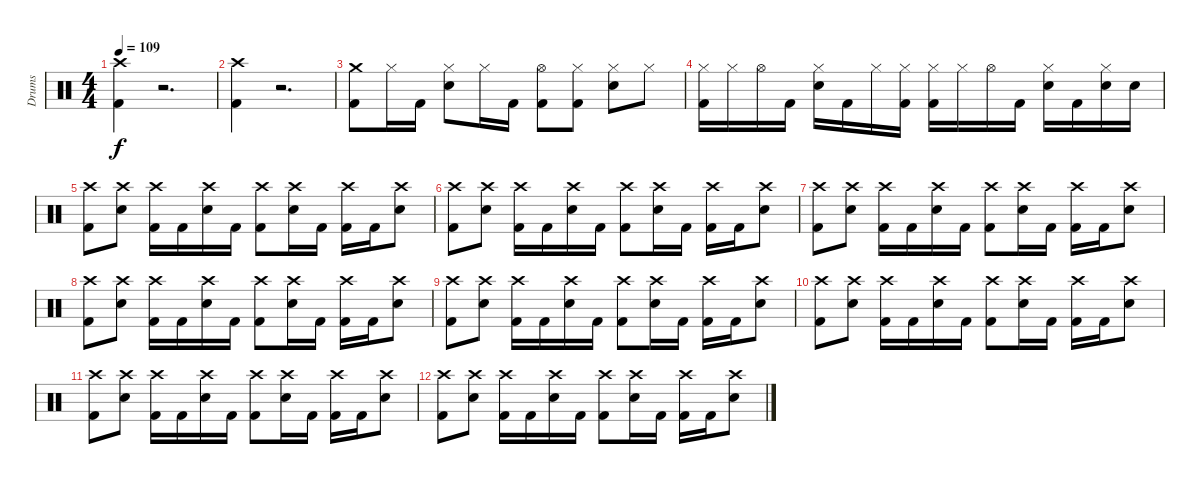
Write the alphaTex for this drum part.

\track ("Drums" "Drums") {instrument percussion}
\staff {score}
\articulation defaults
\ts (4 4)
\tempo 109
\clef neutral
\ks c
("Kick (hit) 2" "Crash high (hit)").4{dy f} r.2{d} |
("Crash high (hit)" "Kick (hit) 2").4 r.2{d} |
("Kick (hit) 2" "Crash medium (hit)").8 "Hi-Hat (closed)".16 "Kick (hit) 2".16 ("Electric Snare (hit)" "Hi-Hat (closed)").8 "Hi-Hat (closed)".16 "Kick (hit) 2".16 ("Kick (hit) 2" "Hi-Hat (open)").8 ("Kick (hit) 2" "Hi-Hat (closed)").8 ("Electric Snare (hit)" "Hi-Hat (closed)").8 "Hi-Hat (closed)".8 |
("Kick (hit) 2" "Hi-Hat (closed)").16 "Hi-Hat (closed)".16 "Hi-Hat (open)".16 "Kick (hit) 2".16 ("Electric Snare (hit)" "Hi-Hat (closed)").16 "Kick (hit) 2".16 "Hi-Hat (closed)".16 ("Kick (hit) 2" "Hi-Hat (closed)").16 ("Kick (hit) 2" "Hi-Hat (closed)").16 "Hi-Hat (closed)".16 "Hi-Hat (open)".16 "Kick (hit) 2".16 ("Electric Snare (hit)" "Hi-Hat (closed)").16 "Kick (hit) 2".16 ("Electric Snare (hit)" "Hi-Hat (closed)").16 "Electric Snare (hit)".16 |
("Kick (hit) 2" "Crash high (hit)").8 ("Electric Snare (hit)" "Crash high (hit)").8 ("Kick (hit) 2" "Crash high (hit)").16 "Kick (hit) 2".16 ("Electric Snare (hit)" "Crash high (hit)").16 "Kick (hit) 2".16 ("Kick (hit) 2" "Crash high (hit)").8 ("Electric Snare (hit)" "Crash high (hit)").16 "Kick (hit) 2".16 ("Kick (hit) 2" "Crash high (hit)").16 "Kick (hit) 2".16 ("Electric Snare (hit)" "Crash high (hit)").8 |
("Kick (hit) 2" "Crash high (hit)").8 ("Electric Snare (hit)" "Crash high (hit)").8 ("Kick (hit) 2" "Crash high (hit)").16 "Kick (hit) 2".16 ("Electric Snare (hit)" "Crash high (hit)").16 "Kick (hit) 2".16 ("Kick (hit) 2" "Crash high (hit)").8 ("Electric Snare (hit)" "Crash high (hit)").16 "Kick (hit) 2".16 ("Kick (hit) 2" "Crash high (hit)").16 "Kick (hit) 2".16 ("Electric Snare (hit)" "Crash high (hit)").8 |
("Kick (hit) 2" "Crash high (hit)").8 ("Electric Snare (hit)" "Crash high (hit)").8 ("Kick (hit) 2" "Crash high (hit)").16 "Kick (hit) 2".16 ("Electric Snare (hit)" "Crash high (hit)").16 "Kick (hit) 2".16 ("Kick (hit) 2" "Crash high (hit)").8 ("Electric Snare (hit)" "Crash high (hit)").16 "Kick (hit) 2".16 ("Kick (hit) 2" "Crash high (hit)").16 "Kick (hit) 2".16 ("Electric Snare (hit)" "Crash high (hit)").8 |
("Kick (hit) 2" "Crash high (hit)").8 ("Electric Snare (hit)" "Crash high (hit)").8 ("Kick (hit) 2" "Crash high (hit)").16 "Kick (hit) 2".16 ("Electric Snare (hit)" "Crash high (hit)").16 "Kick (hit) 2".16 ("Kick (hit) 2" "Crash high (hit)").8 ("Electric Snare (hit)" "Crash high (hit)").16 "Kick (hit) 2".16 ("Kick (hit) 2" "Crash high (hit)").16 "Kick (hit) 2".16 ("Electric Snare (hit)" "Crash high (hit)").8 |
("Kick (hit) 2" "Crash high (hit)").8 ("Electric Snare (hit)" "Crash high (hit)").8 ("Kick (hit) 2" "Crash high (hit)").16 "Kick (hit) 2".16 ("Electric Snare (hit)" "Crash high (hit)").16 "Kick (hit) 2".16 ("Kick (hit) 2" "Crash high (hit)").8 ("Electric Snare (hit)" "Crash high (hit)").16 "Kick (hit) 2".16 ("Kick (hit) 2" "Crash high (hit)").16 "Kick (hit) 2".16 ("Electric Snare (hit)" "Crash high (hit)").8 |
("Kick (hit) 2" "Crash high (hit)").8 ("Electric Snare (hit)" "Crash high (hit)").8 ("Kick (hit) 2" "Crash high (hit)").16 "Kick (hit) 2".16 ("Electric Snare (hit)" "Crash high (hit)").16 "Kick (hit) 2".16 ("Kick (hit) 2" "Crash high (hit)").8 ("Electric Snare (hit)" "Crash high (hit)").16 "Kick (hit) 2".16 ("Kick (hit) 2" "Crash high (hit)").16 "Kick (hit) 2".16 ("Electric Snare (hit)" "Crash high (hit)").8 |
("Kick (hit) 2" "Crash high (hit)").8 ("Electric Snare (hit)" "Crash high (hit)").8 ("Kick (hit) 2" "Crash high (hit)").16 "Kick (hit) 2".16 ("Electric Snare (hit)" "Crash high (hit)").16 "Kick (hit) 2".16 ("Kick (hit) 2" "Crash high (hit)").8 ("Electric Snare (hit)" "Crash high (hit)").16 "Kick (hit) 2".16 ("Kick (hit) 2" "Crash high (hit)").16 "Kick (hit) 2".16 ("Electric Snare (hit)" "Crash high (hit)").8 |
("Kick (hit) 2" "Crash high (hit)").8 ("Electric Snare (hit)" "Crash high (hit)").8 ("Kick (hit) 2" "Crash high (hit)").16 "Kick (hit) 2".16 ("Electric Snare (hit)" "Crash high (hit)").16 "Kick (hit) 2".16 ("Kick (hit) 2" "Crash high (hit)").8 ("Electric Snare (hit)" "Crash high (hit)").16 "Kick (hit) 2".16 ("Kick (hit) 2" "Crash high (hit)").16 "Kick (hit) 2".16 ("Electric Snare (hit)" "Crash high (hit)").8
